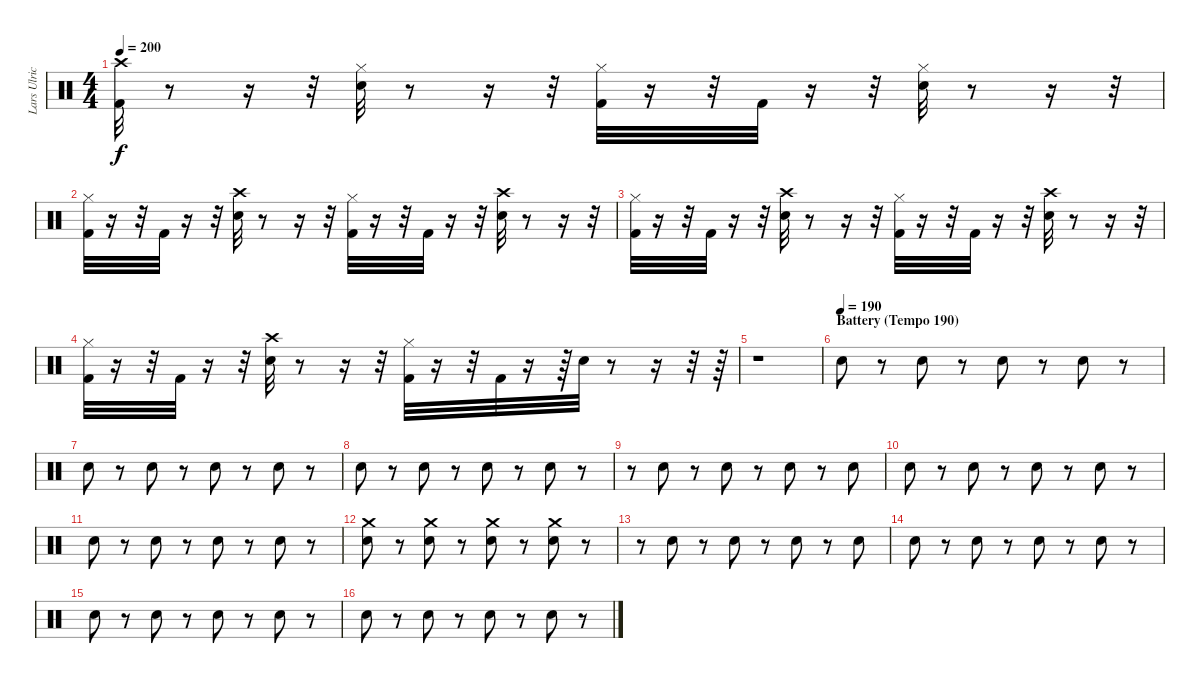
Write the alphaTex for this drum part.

\track ("Lars Ulrich (Drums)" "Lars Ulric") {instrument percussion}
\staff {score}
\articulation defaults
\ts (4 4)
\tempo 200
\clef neutral
\ks c
("Kick (hit) 2" "Crash high (hit)").32{dy f} r.8 r.16 r.32 ("Hi-Hat (closed)" "Snare (hit) 2").32 r.8 r.16 r.32 ("Hi-Hat (closed)" "Kick (hit) 2").32 r.16 r.32 "Kick (hit) 2".32 r.16 r.32 ("Hi-Hat (closed)" "Snare (hit) 2").32 r.8 r.16 r.32 |
("Kick (hit) 2" "Hi-Hat (closed)").32 r.16 r.32 "Kick (hit) 2".32 r.16 r.32 ("Crash high (hit)" "Snare (hit) 2").32 r.8 r.16 r.32 ("Kick (hit) 2" "Hi-Hat (closed)").32 r.16 r.32 "Kick (hit) 2".32 r.16 r.32 ("Crash high (hit)" "Snare (hit) 2").32 r.8 r.16 r.32 |
("Kick (hit) 2" "Hi-Hat (closed)").32 r.16 r.32 "Kick (hit) 2".32 r.16 r.32 ("Crash high (hit)" "Snare (hit) 2").32 r.8 r.16 r.32 ("Kick (hit) 2" "Hi-Hat (closed)").32 r.16 r.32 "Kick (hit) 2".32 r.16 r.32 ("Crash high (hit)" "Snare (hit) 2").32 r.8 r.16 r.32 |
("Kick (hit) 2" "Hi-Hat (closed)").32 r.16 r.32 "Kick (hit) 2".32 r.16 r.32 ("Crash high (hit)" "Snare (hit) 2").32 r.8 r.16 r.32 ("Kick (hit) 2" "Hi-Hat (closed)").32 r.16 r.32 "Kick (hit) 2".32 r.16 r.64 "Snare (hit) 2".32 r.8 r.16 r.32 r.64 |
r.1 |
\section ("" "Battery (Tempo 190)")
\tempo (190)
"Electric Snare (hit)".8 r.8 "Electric Snare (hit)".8 r.8 "Electric Snare (hit)".8 r.8 "Electric Snare (hit)".8 r.8 |
"Electric Snare (hit)".8 r.8 "Electric Snare (hit)".8 r.8 "Electric Snare (hit)".8 r.8 "Electric Snare (hit)".8 r.8 |
"Electric Snare (hit)".8 r.8 "Electric Snare (hit)".8 r.8 "Electric Snare (hit)".8 r.8 "Electric Snare (hit)".8 r.8 |
r.8 "Electric Snare (hit)".8 r.8 "Electric Snare (hit)".8 r.8 "Electric Snare (hit)".8 r.8 "Electric Snare (hit)".8 |
"Electric Snare (hit)".8 r.8 "Electric Snare (hit)".8 r.8 "Electric Snare (hit)".8 r.8 "Electric Snare (hit)".8 r.8 |
"Electric Snare (hit)".8 r.8 "Electric Snare (hit)".8 r.8 "Electric Snare (hit)".8 r.8 "Electric Snare (hit)".8 r.8 |
("Crash medium (hit)" "Electric Snare (hit)").8 r.8 ("Crash medium (hit)" "Electric Snare (hit)").8 r.8 ("Crash medium (hit)" "Electric Snare (hit)").8 r.8 ("Crash medium (hit)" "Electric Snare (hit)").8 r.8 |
r.8 "Electric Snare (hit)".8 r.8 "Electric Snare (hit)".8 r.8 "Electric Snare (hit)".8 r.8 "Electric Snare (hit)".8 |
"Electric Snare (hit)".8 r.8 "Electric Snare (hit)".8 r.8 "Electric Snare (hit)".8 r.8 "Electric Snare (hit)".8 r.8 |
"Electric Snare (hit)".8 r.8 "Electric Snare (hit)".8 r.8 "Electric Snare (hit)".8 r.8 "Electric Snare (hit)".8 r.8 |
"Electric Snare (hit)".8 r.8 "Electric Snare (hit)".8 r.8 "Electric Snare (hit)".8 r.8 "Electric Snare (hit)".8 r.8
